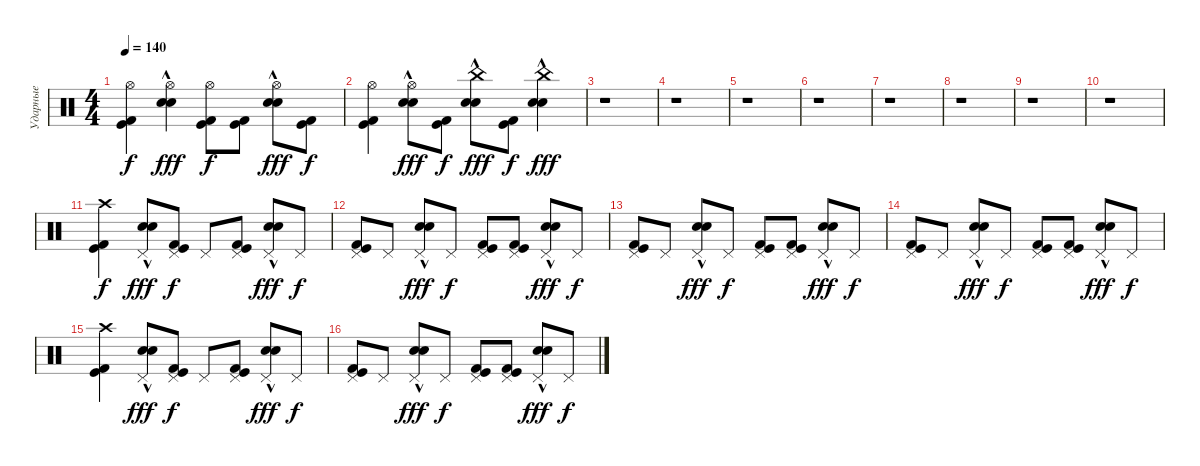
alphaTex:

\track ("Ударные" "Ударные") {instrument percussion}
\staff {score}
\articulation defaults
\ts (4 4)
\tempo 140
\clef neutral
\ks c
("Hi-Hat (open)" "Kick (hit)" "Kick (hit) 2").4{dy f} ("Hi-Hat (open)" "Snare (hit) 2"{hac} "Electric Snare (hit)"{hac}).4{dy fff} ("Hi-Hat (open)" "Kick (hit)" "Kick (hit) 2").8{dy f} ("Kick (hit)" "Kick (hit) 2").8 ("Hi-Hat (open)" "Snare (hit) 2"{hac} "Electric Snare (hit)"{hac}).8{dy fff} ("Kick (hit)" "Kick (hit) 2").8{dy f} |
("Hi-Hat (open)" "Kick (hit)" "Kick (hit) 2").4 ("Hi-Hat (open)" "Snare (hit) 2"{hac} "Electric Snare (hit)"{hac}).8{dy fff} ("Kick (hit)" "Kick (hit) 2").8{dy f} ("China (hit)" "Snare (hit) 2"{hac} "Electric Snare (hit)"{hac}).8{dy fff} ("Kick (hit)" "Kick (hit) 2").8{dy f} ("China (hit)" "Snare (hit) 2"{hac} "Electric Snare (hit)"{hac}).4{dy fff} |
r.1 |
r.1 |
r.1 |
r.1 |
r.1 |
r.1 |
r.1 |
r.1 |
("Crash high (hit)" "Kick (hit)" "Kick (hit) 2").4{dy f} ("Pedal Hi-Hat (hit)" "Snare (hit) 2"{hac} "Electric Snare (hit)"{hac}).8{dy fff} ("Pedal Hi-Hat (hit)" "Kick (hit)" "Kick (hit) 2").8{dy f} "Pedal Hi-Hat (hit)".8 ("Pedal Hi-Hat (hit)" "Kick (hit)" "Kick (hit) 2").8 ("Pedal Hi-Hat (hit)" "Snare (hit) 2"{hac} "Electric Snare (hit)"{hac}).8{dy fff} "Pedal Hi-Hat (hit)".8{dy f} |
("Pedal Hi-Hat (hit)" "Kick (hit)" "Kick (hit) 2").8 "Pedal Hi-Hat (hit)".8 ("Pedal Hi-Hat (hit)" "Snare (hit) 2"{hac} "Electric Snare (hit)"{hac}).8{dy fff} "Pedal Hi-Hat (hit)".8{dy f} ("Pedal Hi-Hat (hit)" "Kick (hit)" "Kick (hit) 2").8 ("Pedal Hi-Hat (hit)" "Kick (hit)" "Kick (hit) 2").8 ("Pedal Hi-Hat (hit)" "Snare (hit) 2"{hac} "Electric Snare (hit)"{hac}).8{dy fff} "Pedal Hi-Hat (hit)".8{dy f} |
("Pedal Hi-Hat (hit)" "Kick (hit)" "Kick (hit) 2").8 "Pedal Hi-Hat (hit)".8 ("Pedal Hi-Hat (hit)" "Snare (hit) 2"{hac} "Electric Snare (hit)"{hac}).8{dy fff} "Pedal Hi-Hat (hit)".8{dy f} ("Pedal Hi-Hat (hit)" "Kick (hit)" "Kick (hit) 2").8 ("Pedal Hi-Hat (hit)" "Kick (hit)" "Kick (hit) 2").8 ("Pedal Hi-Hat (hit)" "Snare (hit) 2"{hac} "Electric Snare (hit)"{hac}).8{dy fff} "Pedal Hi-Hat (hit)".8{dy f} |
("Pedal Hi-Hat (hit)" "Kick (hit)" "Kick (hit) 2").8 "Pedal Hi-Hat (hit)".8 ("Pedal Hi-Hat (hit)" "Snare (hit) 2"{hac} "Electric Snare (hit)"{hac}).8{dy fff} "Pedal Hi-Hat (hit)".8{dy f} ("Pedal Hi-Hat (hit)" "Kick (hit)" "Kick (hit) 2").8 ("Pedal Hi-Hat (hit)" "Kick (hit)" "Kick (hit) 2").8 ("Pedal Hi-Hat (hit)" "Snare (hit) 2"{hac} "Electric Snare (hit)"{hac}).8{dy fff} "Pedal Hi-Hat (hit)".8{dy f} |
("Crash high (hit)" "Kick (hit)" "Kick (hit) 2").4 ("Pedal Hi-Hat (hit)" "Snare (hit) 2"{hac} "Electric Snare (hit)"{hac}).8{dy fff} ("Pedal Hi-Hat (hit)" "Kick (hit)" "Kick (hit) 2").8{dy f} "Pedal Hi-Hat (hit)".8 ("Pedal Hi-Hat (hit)" "Kick (hit)" "Kick (hit) 2").8 ("Pedal Hi-Hat (hit)" "Snare (hit) 2"{hac} "Electric Snare (hit)"{hac}).8{dy fff} "Pedal Hi-Hat (hit)".8{dy f} |
("Pedal Hi-Hat (hit)" "Kick (hit)" "Kick (hit) 2").8 "Pedal Hi-Hat (hit)".8 ("Pedal Hi-Hat (hit)" "Snare (hit) 2"{hac} "Electric Snare (hit)"{hac}).8{dy fff} "Pedal Hi-Hat (hit)".8{dy f} ("Pedal Hi-Hat (hit)" "Kick (hit)" "Kick (hit) 2").8 ("Pedal Hi-Hat (hit)" "Kick (hit)" "Kick (hit) 2").8 ("Pedal Hi-Hat (hit)" "Snare (hit) 2"{hac} "Electric Snare (hit)"{hac}).8{dy fff} "Pedal Hi-Hat (hit)".8{dy f}
